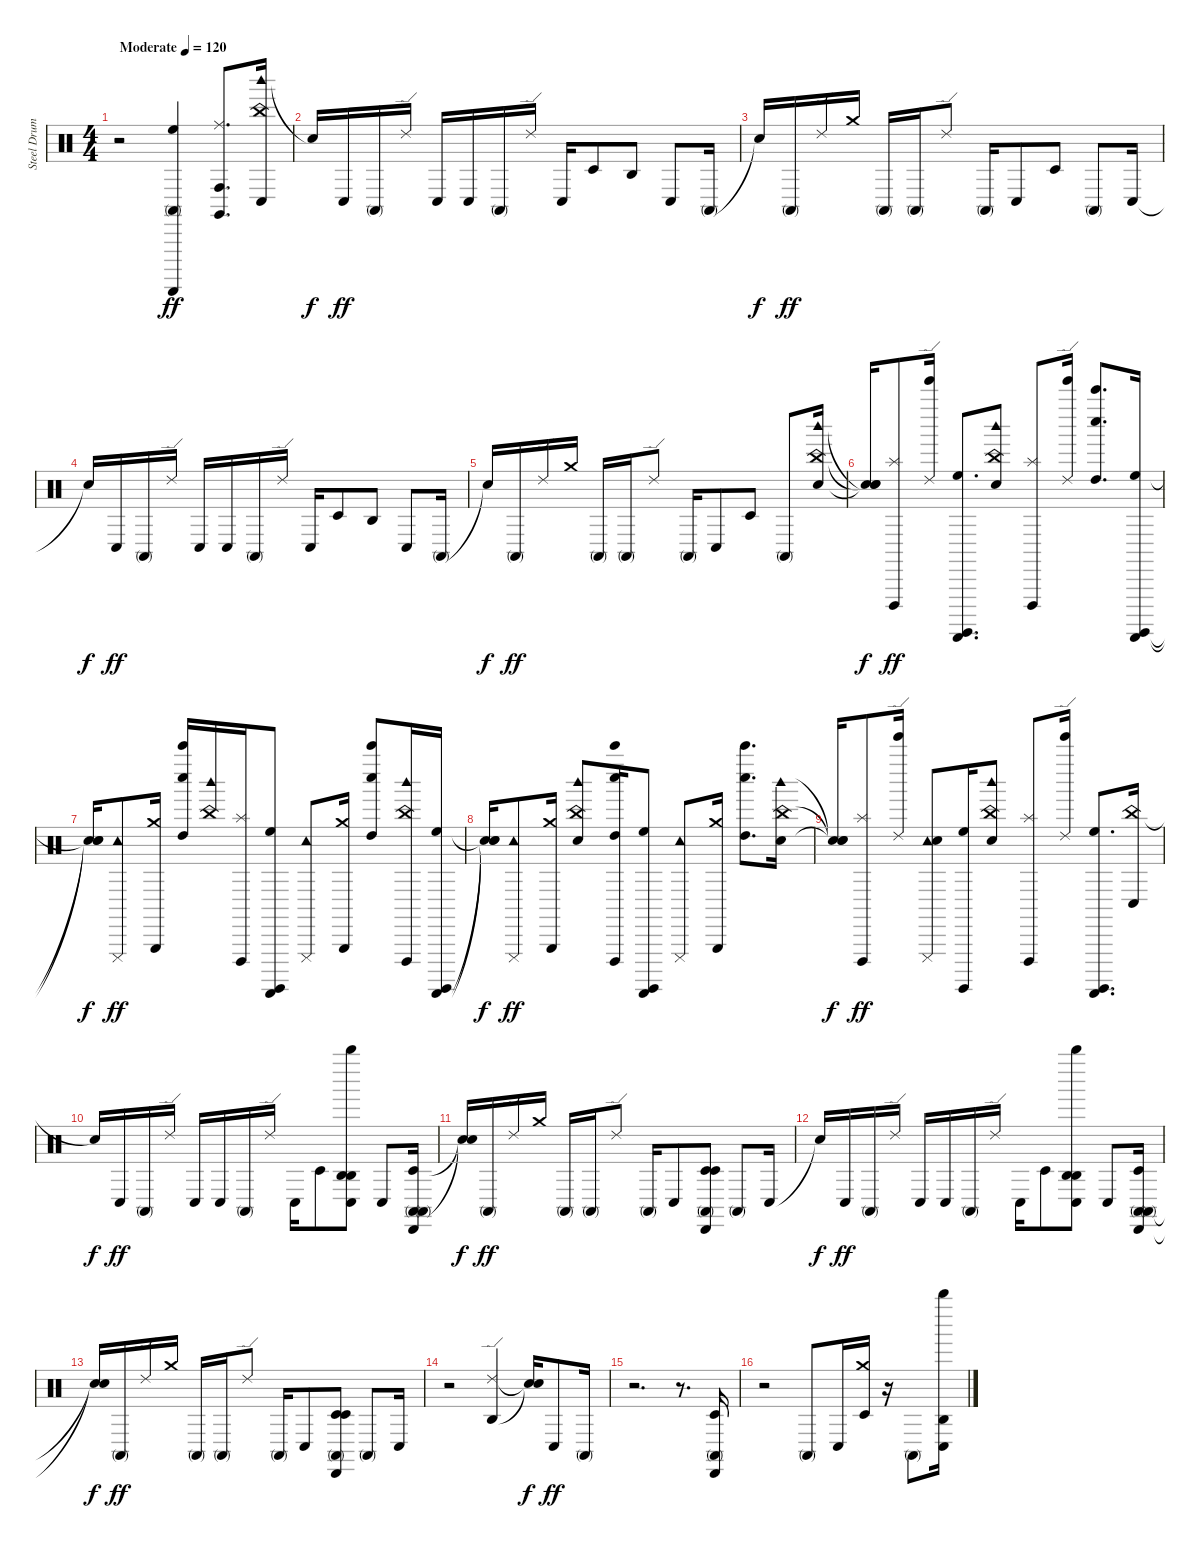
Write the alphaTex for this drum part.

\track ("Steel Drums" "Steel Drum") {instrument percussion}
\staff {score}
\articulation defaults
\ts (4 4)
\tempo (120 "Moderate")
\clef neutral
\ks c
r.2{dy ff} ("Conga high (mute)" "Guiro (scrap-return)" "High Floor Tom (hit)").4 ("Claves (hit)" "Ride (middle)" "Conga high (hit)").8{d} ("Woodblock high (hit)" "Conga low (hit)" "China (hit)").16 |
"Snare (hit)"{t}.16{dy f} "Conga low (hit)".16{dy ff} "Conga high (mute)".16 "Ride (edge) 2".16 "Conga low (hit)".16 "Conga low (hit)".16 "Conga high (mute)".16 "Ride (edge) 2".16 "Conga low (hit)".16 "Timbale low (hit)".8 "Agogo high (hit)".8 "Conga low (hit)".8 "Conga high (mute)".16 |
"Snare (hit)"{t}.16{dy f} "Conga high (mute)".16{dy ff} "Ride (edge) 2".16 "Crash medium (hit)".16 "Conga high (mute)".16 "Conga high (mute)".16 "Ride (edge) 2".8 "Conga high (mute)".16 "Conga low (hit)".8 "Timbale low (hit)".8 "Conga high (mute)".8 "Conga low (hit)".16 |
"Snare (hit)"{t}.16{dy f} "Conga low (hit)".16{dy ff} "Conga high (mute)".16 "Ride (edge) 2".16 "Conga low (hit)".16 "Conga low (hit)".16 "Conga high (mute)".16 "Ride (edge) 2".16 "Conga low (hit)".16 "Timbale low (hit)".8 "Agogo high (hit)".8 "Conga low (hit)".8 "Conga high (mute)".16 |
"Snare (hit)"{t}.16{dy f} "Conga high (mute)".16{dy ff} "Ride (edge) 2".16 "Crash medium (hit)".16 "Conga high (mute)".16 "Conga high (mute)".16 "Ride (edge) 2".8 "Conga high (mute)".16 "Conga low (hit)".8 "Timbale low (hit)".8 "Conga high (mute)".8 ("China (hit)" "Snare (hit)" "Woodblock high (hit)").16 |
("Snare (hit)"{t} "Snare (hit)"{t} "Snare (hit)"{t}).16{dy f} ("Cuica (open)" "Splash (hit)").8{dy ff} ("Ride (edge) 2" "Tinkle Bell (hit)").16 ("High Floor Tom (hit)" "Guiro (scrap-return)" "Surdo (hit)").8{d} ("Snare (hit)" "Woodblock high (hit)" "China (hit)").8 ("Cuica (open)" "Splash (hit)").8 ("Tinkle Bell (hit)" "Ride (edge) 2").16 ("Whistle low (hit)" "Bell Tree (hit)" "High Tom (hit)").8{d} ("High Floor Tom (hit)" "Surdo (hit)" "Guiro (scrap-return)").16 |
("Snare (hit)"{t} "Snare (hit)"{t} "Snare (hit)"{t}).16{dy f} ("Cuica (mute)" "Tambourine (hit)").8{dy ff} ("Crash medium (hit)" "Triangle (hit)").16 ("High Tom (hit)" "Bell Tree (hit)" "Whistle low (hit)").16 ("Woodblock high (hit)" "China (hit)").16 ("Splash (hit)" "Cuica (open)").16 ("Guiro (scrap-return)" "High Floor Tom (hit)" "Surdo (hit)").8 ("Tambourine (hit)" "Cuica (mute)").8 ("Triangle (hit)" "Crash medium (hit)").16 ("Whistle low (hit)" "Bell Tree (hit)" "High Tom (hit)").8 ("Cuica (open)" "Woodblock high (hit)" "China (hit)").16 ("Guiro (scrap-return)" "Surdo (hit)" "High Floor Tom (hit)").16 |
("Snare (hit)"{t} "Snare (hit)"{t} "Snare (hit)"{t}).16{dy f} ("Tambourine (hit)" "Cuica (mute)").8{dy ff} ("Triangle (hit)" "Crash medium (hit)").16 ("China (hit)" "Snare (hit)" "Woodblock high (hit)").8 ("Bell Tree (hit)" "Cuica (open)" "Whistle low (hit)" "High Tom (hit)").16 ("Guiro (scrap-return)" "High Floor Tom (hit)" "Surdo (hit)").8 ("Tambourine (hit)" "Cuica (mute)").8 ("Crash medium (hit)" "Triangle (hit)").16 ("Whistle low (hit)" "Bell Tree (hit)" "High Tom (hit)").8{d} ("China (hit)" "Snare (hit)" "Woodblock high (hit)").16 |
("Snare (hit)"{t} "Snare (hit)"{t} "Snare (hit)"{t}).16{dy f} ("Splash (hit)" "Cuica (open)").8{dy ff} ("Tinkle Bell (hit)" "Ride (edge) 2").16 ("Tambourine (hit)" "Cuica (mute)" "Snare (hit)").8 ("Surdo (hit)" "High Floor Tom (hit)").16 ("China (hit)" "Snare (hit)" "Woodblock high (hit)").8 ("Cuica (open)" "Splash (hit)").8 ("Ride (edge) 2" "Tinkle Bell (hit)").16 ("Guiro (scrap-return)" "High Floor Tom (hit)" "Surdo (hit)").8{d} ("China (hit)" "Conga low (hit)").16 |
"Snare (hit)"{t}.16{dy f} "Conga low (hit)".16{dy ff} "Conga high (mute)".16 "Ride (edge) 2".16 "Conga low (hit)".16 "Conga low (hit)".16 "Conga high (mute)".16 "Ride (edge) 2".16 "Conga low (hit)".16 "Timbale low (hit)".8 ("Conga low (hit)" "Whistle high (hit)" "Agogo high (hit)" "Agogo high (hit)").8 "Conga low (hit)".8 ("Timbale low (hit)" "Conga high (mute)" "Cabasa (hit)" "Conga high (mute)").16 |
("Snare (hit)"{t} "Snare (hit)"{t}).16{dy f} "Conga high (mute)".16{dy ff} "Ride (edge) 2".16 "Crash medium (hit)".16 "Conga high (mute)".16 "Conga high (mute)".16 "Ride (edge) 2".8 "Conga high (mute)".16 "Conga low (hit)".8 ("Cabasa (hit)" "Conga high (mute)" "Timbale low (hit)" "Timbale low (hit)").8 "Conga high (mute)".8 "Conga low (hit)".16 |
"Snare (hit)"{t}.16{dy f} "Conga low (hit)".16{dy ff} "Conga high (mute)".16 "Ride (edge) 2".16 "Conga low (hit)".16 "Conga low (hit)".16 "Conga high (mute)".16 "Ride (edge) 2".16 "Conga low (hit)".16 "Timbale low (hit)".8 ("Agogo high (hit)" "Agogo high (hit)" "Whistle high (hit)" "Conga low (hit)").8 "Conga low (hit)".8 ("Conga high (mute)" "Cabasa (hit)" "Timbale low (hit)" "Conga high (mute)").16 |
("Snare (hit)"{t} "Snare (hit)"{t}).16{dy f} "Conga high (mute)".16{dy ff} "Ride (edge) 2".16 "Crash medium (hit)".16 "Conga high (mute)".16 "Conga high (mute)".16 "Ride (edge) 2".8 "Conga high (mute)".16 "Conga low (hit)".8 ("Cabasa (hit)" "Timbale low (hit)" "Conga high (mute)" "Timbale low (hit)").8 "Conga high (mute)".8 "Conga low (hit)".16 |
r.2 ("Agogo high (hit)" "Ride (edge) 2").4 ("Snare (hit)"{t} "Snare (hit)"{t}).16{dy f} "Conga low (hit)".8{dy ff} "Conga high (mute)".16 |
r.2{d} r.8{d} ("Timbale low (hit)" "Conga high (mute)" "Cabasa (hit)").16 |
r.2 "Conga high (mute)".8 "Conga low (hit)".16 ("Timbale low (hit)" "Crash medium (hit)").16 r.16 "Conga high (mute)".8 ("Agogo high (hit)" "Conga low (hit)" "Whistle high (hit)").16
